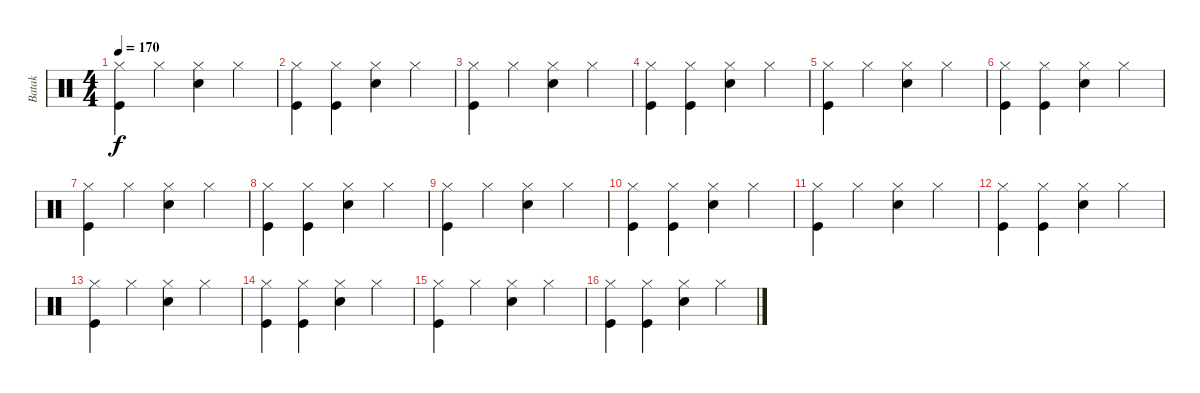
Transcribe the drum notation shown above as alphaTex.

\track ("Batak" "Batak") {instrument percussion}
\staff {score}
\articulation defaults
\ts (4 4)
\tempo 170
\clef neutral
\ks c
("Hi-Hat (closed)" "Kick (hit)").4{dy f} "Hi-Hat (closed)".4 ("Hi-Hat (closed)" "Snare (hit) 2").4 "Hi-Hat (closed)".4 |
("Hi-Hat (closed)" "Kick (hit)").4 ("Hi-Hat (closed)" "Kick (hit)").4 ("Hi-Hat (closed)" "Snare (hit) 2").4 "Hi-Hat (closed)".4 |
("Hi-Hat (closed)" "Kick (hit)").4 "Hi-Hat (closed)".4 ("Hi-Hat (closed)" "Snare (hit) 2").4 "Hi-Hat (closed)".4 |
("Hi-Hat (closed)" "Kick (hit)").4 ("Hi-Hat (closed)" "Kick (hit)").4 ("Hi-Hat (closed)" "Snare (hit) 2").4 "Hi-Hat (closed)".4 |
("Hi-Hat (closed)" "Kick (hit)").4 "Hi-Hat (closed)".4 ("Hi-Hat (closed)" "Snare (hit) 2").4 "Hi-Hat (closed)".4 |
("Hi-Hat (closed)" "Kick (hit)").4 ("Hi-Hat (closed)" "Kick (hit)").4 ("Hi-Hat (closed)" "Snare (hit) 2").4 "Hi-Hat (closed)".4 |
("Hi-Hat (closed)" "Kick (hit)").4 "Hi-Hat (closed)".4 ("Hi-Hat (closed)" "Snare (hit) 2").4 "Hi-Hat (closed)".4 |
("Hi-Hat (closed)" "Kick (hit)").4 ("Hi-Hat (closed)" "Kick (hit)").4 ("Hi-Hat (closed)" "Snare (hit) 2").4 "Hi-Hat (closed)".4 |
("Hi-Hat (closed)" "Kick (hit)").4 "Hi-Hat (closed)".4 ("Hi-Hat (closed)" "Snare (hit) 2").4 "Hi-Hat (closed)".4 |
("Hi-Hat (closed)" "Kick (hit)").4 ("Hi-Hat (closed)" "Kick (hit)").4 ("Hi-Hat (closed)" "Snare (hit) 2").4 "Hi-Hat (closed)".4 |
("Hi-Hat (closed)" "Kick (hit)").4 "Hi-Hat (closed)".4 ("Hi-Hat (closed)" "Snare (hit) 2").4 "Hi-Hat (closed)".4 |
("Hi-Hat (closed)" "Kick (hit)").4 ("Hi-Hat (closed)" "Kick (hit)").4 ("Hi-Hat (closed)" "Snare (hit) 2").4 "Hi-Hat (closed)".4 |
("Hi-Hat (closed)" "Kick (hit)").4 "Hi-Hat (closed)".4 ("Hi-Hat (closed)" "Snare (hit) 2").4 "Hi-Hat (closed)".4 |
("Hi-Hat (closed)" "Kick (hit)").4 ("Hi-Hat (closed)" "Kick (hit)").4 ("Hi-Hat (closed)" "Snare (hit) 2").4 "Hi-Hat (closed)".4 |
("Hi-Hat (closed)" "Kick (hit)").4 "Hi-Hat (closed)".4 ("Hi-Hat (closed)" "Snare (hit) 2").4 "Hi-Hat (closed)".4 |
("Hi-Hat (closed)" "Kick (hit)").4 ("Hi-Hat (closed)" "Kick (hit)").4 ("Hi-Hat (closed)" "Snare (hit) 2").4 "Hi-Hat (closed)".4
